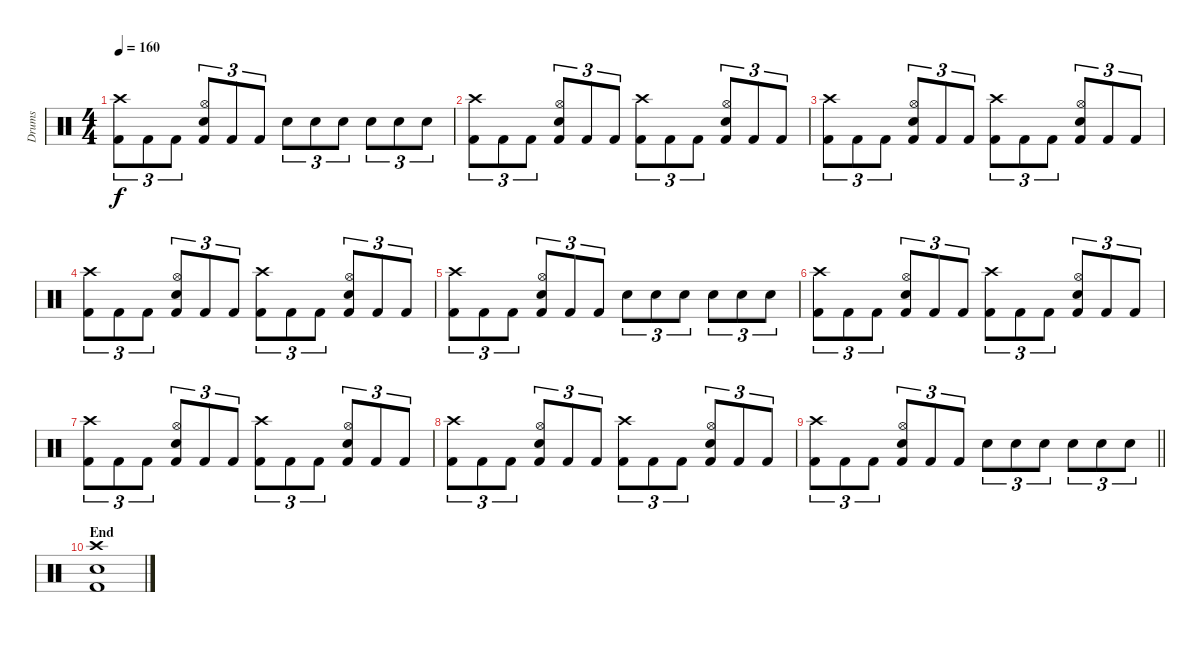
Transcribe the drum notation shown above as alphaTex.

\track ("Drums" "Drums") {instrument percussion}
\staff {score}
\articulation defaults
\ts (4 4)
\tempo 160
\clef neutral
\ks c
("Crash high (hit)" "Kick (hit) 2").8{tu (3 2) dy f} "Kick (hit) 2".8{tu (3 2)} "Kick (hit) 2".8{tu (3 2)} ("Hi-Hat (open)" "Snare (hit) 2" "Kick (hit) 2").8{tu (3 2)} "Kick (hit) 2".8{tu (3 2)} "Kick (hit) 2".8{tu (3 2)} "Snare (hit) 2".8{tu (3 2)} "Snare (hit) 2".8{tu (3 2)} "Snare (hit) 2".8{tu (3 2)} "Snare (hit) 2".8{tu (3 2)} "Snare (hit) 2".8{tu (3 2)} "Snare (hit) 2".8{tu (3 2)} |
("Crash high (hit)" "Kick (hit) 2").8{tu (3 2)} "Kick (hit) 2".8{tu (3 2)} "Kick (hit) 2".8{tu (3 2)} ("Hi-Hat (open)" "Snare (hit) 2" "Kick (hit) 2").8{tu (3 2)} "Kick (hit) 2".8{tu (3 2)} "Kick (hit) 2".8{tu (3 2)} ("Crash high (hit)" "Kick (hit) 2").8{tu (3 2)} "Kick (hit) 2".8{tu (3 2)} "Kick (hit) 2".8{tu (3 2)} ("Hi-Hat (open)" "Snare (hit) 2" "Kick (hit) 2").8{tu (3 2)} "Kick (hit) 2".8{tu (3 2)} "Kick (hit) 2".8{tu (3 2)} |
("Crash high (hit)" "Kick (hit) 2").8{tu (3 2)} "Kick (hit) 2".8{tu (3 2)} "Kick (hit) 2".8{tu (3 2)} ("Hi-Hat (open)" "Snare (hit) 2" "Kick (hit) 2").8{tu (3 2)} "Kick (hit) 2".8{tu (3 2)} "Kick (hit) 2".8{tu (3 2)} ("Crash high (hit)" "Kick (hit) 2").8{tu (3 2)} "Kick (hit) 2".8{tu (3 2)} "Kick (hit) 2".8{tu (3 2)} ("Hi-Hat (open)" "Snare (hit) 2" "Kick (hit) 2").8{tu (3 2)} "Kick (hit) 2".8{tu (3 2)} "Kick (hit) 2".8{tu (3 2)} |
("Crash high (hit)" "Kick (hit) 2").8{tu (3 2)} "Kick (hit) 2".8{tu (3 2)} "Kick (hit) 2".8{tu (3 2)} ("Hi-Hat (open)" "Snare (hit) 2" "Kick (hit) 2").8{tu (3 2)} "Kick (hit) 2".8{tu (3 2)} "Kick (hit) 2".8{tu (3 2)} ("Crash high (hit)" "Kick (hit) 2").8{tu (3 2)} "Kick (hit) 2".8{tu (3 2)} "Kick (hit) 2".8{tu (3 2)} ("Hi-Hat (open)" "Snare (hit) 2" "Kick (hit) 2").8{tu (3 2)} "Kick (hit) 2".8{tu (3 2)} "Kick (hit) 2".8{tu (3 2)} |
("Crash high (hit)" "Kick (hit) 2").8{tu (3 2)} "Kick (hit) 2".8{tu (3 2)} "Kick (hit) 2".8{tu (3 2)} ("Hi-Hat (open)" "Snare (hit) 2" "Kick (hit) 2").8{tu (3 2)} "Kick (hit) 2".8{tu (3 2)} "Kick (hit) 2".8{tu (3 2)} "Snare (hit) 2".8{tu (3 2)} "Snare (hit) 2".8{tu (3 2)} "Snare (hit) 2".8{tu (3 2)} "Snare (hit) 2".8{tu (3 2)} "Snare (hit) 2".8{tu (3 2)} "Snare (hit) 2".8{tu (3 2)} |
("Crash high (hit)" "Kick (hit) 2").8{tu (3 2)} "Kick (hit) 2".8{tu (3 2)} "Kick (hit) 2".8{tu (3 2)} ("Hi-Hat (open)" "Snare (hit) 2" "Kick (hit) 2").8{tu (3 2)} "Kick (hit) 2".8{tu (3 2)} "Kick (hit) 2".8{tu (3 2)} ("Crash high (hit)" "Kick (hit) 2").8{tu (3 2)} "Kick (hit) 2".8{tu (3 2)} "Kick (hit) 2".8{tu (3 2)} ("Hi-Hat (open)" "Snare (hit) 2" "Kick (hit) 2").8{tu (3 2)} "Kick (hit) 2".8{tu (3 2)} "Kick (hit) 2".8{tu (3 2)} |
("Crash high (hit)" "Kick (hit) 2").8{tu (3 2)} "Kick (hit) 2".8{tu (3 2)} "Kick (hit) 2".8{tu (3 2)} ("Hi-Hat (open)" "Snare (hit) 2" "Kick (hit) 2").8{tu (3 2)} "Kick (hit) 2".8{tu (3 2)} "Kick (hit) 2".8{tu (3 2)} ("Crash high (hit)" "Kick (hit) 2").8{tu (3 2)} "Kick (hit) 2".8{tu (3 2)} "Kick (hit) 2".8{tu (3 2)} ("Hi-Hat (open)" "Snare (hit) 2" "Kick (hit) 2").8{tu (3 2)} "Kick (hit) 2".8{tu (3 2)} "Kick (hit) 2".8{tu (3 2)} |
("Crash high (hit)" "Kick (hit) 2").8{tu (3 2)} "Kick (hit) 2".8{tu (3 2)} "Kick (hit) 2".8{tu (3 2)} ("Hi-Hat (open)" "Snare (hit) 2" "Kick (hit) 2").8{tu (3 2)} "Kick (hit) 2".8{tu (3 2)} "Kick (hit) 2".8{tu (3 2)} ("Crash high (hit)" "Kick (hit) 2").8{tu (3 2)} "Kick (hit) 2".8{tu (3 2)} "Kick (hit) 2".8{tu (3 2)} ("Hi-Hat (open)" "Snare (hit) 2" "Kick (hit) 2").8{tu (3 2)} "Kick (hit) 2".8{tu (3 2)} "Kick (hit) 2".8{tu (3 2)} |
\barLineRight lightlight
("Crash high (hit)" "Kick (hit) 2").8{tu (3 2)} "Kick (hit) 2".8{tu (3 2)} "Kick (hit) 2".8{tu (3 2)} ("Hi-Hat (open)" "Snare (hit) 2" "Kick (hit) 2").8{tu (3 2)} "Kick (hit) 2".8{tu (3 2)} "Kick (hit) 2".8{tu (3 2)} "Snare (hit) 2".8{tu (3 2)} "Snare (hit) 2".8{tu (3 2)} "Snare (hit) 2".8{tu (3 2)} "Snare (hit) 2".8{tu (3 2)} "Snare (hit) 2".8{tu (3 2)} "Snare (hit) 2".8{tu (3 2)} |
\section ("" "End")
("Crash high (hit)" "Snare (hit) 2" "Kick (hit) 2").1
